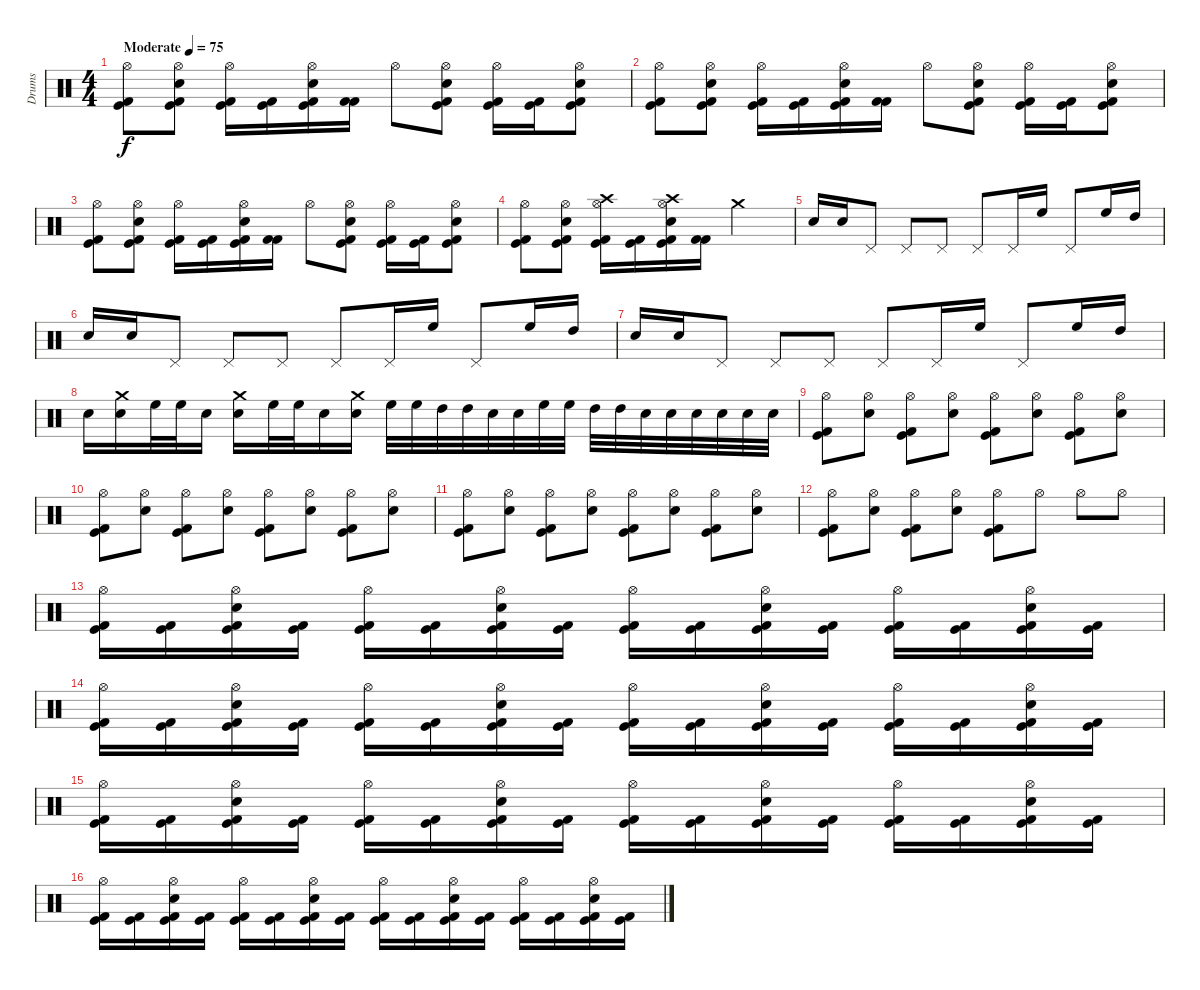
\track ("Drums" "Drums") {instrument percussion}
\staff {score}
\articulation defaults
\ts (4 4)
\tempo (75 "Moderate")
\clef neutral
\ks c
("Kick (hit) 2" "Kick (hit)" "Hi-Hat (open)").8{dy f} ("Kick (hit) 2" "Kick (hit)" "Snare (hit) 2" "Hi-Hat (open)").8 ("Kick (hit) 2" "Kick (hit)" "Hi-Hat (open)").16 ("Kick (hit) 2" "Kick (hit)").16 ("Kick (hit) 2" "Kick (hit)" "Snare (hit) 2" "Hi-Hat (open)").16 ("Kick (hit) 2" "Kick (hit) 2").16 "Hi-Hat (open)".8 ("Kick (hit) 2" "Kick (hit)" "Snare (hit) 2" "Hi-Hat (open)").8 ("Kick (hit) 2" "Kick (hit)" "Hi-Hat (open)").16 ("Kick (hit) 2" "Kick (hit)").16 ("Kick (hit) 2" "Kick (hit)" "Snare (hit) 2" "Hi-Hat (open)").8 |
("Kick (hit) 2" "Kick (hit)" "Hi-Hat (open)").8 ("Kick (hit) 2" "Kick (hit)" "Snare (hit) 2" "Hi-Hat (open)").8 ("Kick (hit) 2" "Kick (hit)" "Hi-Hat (open)").16 ("Kick (hit) 2" "Kick (hit)").16 ("Kick (hit) 2" "Kick (hit)" "Snare (hit) 2" "Hi-Hat (open)").16 ("Kick (hit) 2" "Kick (hit) 2").16 "Hi-Hat (open)".8 ("Kick (hit) 2" "Kick (hit)" "Snare (hit) 2" "Hi-Hat (open)").8 ("Kick (hit) 2" "Kick (hit)" "Hi-Hat (open)").16 ("Kick (hit) 2" "Kick (hit)").16 ("Kick (hit) 2" "Kick (hit)" "Snare (hit) 2" "Hi-Hat (open)").8 |
("Kick (hit) 2" "Kick (hit)" "Hi-Hat (open)").8 ("Kick (hit) 2" "Kick (hit)" "Snare (hit) 2" "Hi-Hat (open)").8 ("Kick (hit) 2" "Kick (hit)" "Hi-Hat (open)").16 ("Kick (hit) 2" "Kick (hit)").16 ("Kick (hit) 2" "Kick (hit)" "Snare (hit) 2" "Hi-Hat (open)").16 ("Kick (hit) 2" "Kick (hit) 2").16 "Hi-Hat (open)".8 ("Kick (hit) 2" "Kick (hit)" "Snare (hit) 2" "Hi-Hat (open)").8 ("Kick (hit) 2" "Kick (hit)" "Hi-Hat (open)").16 ("Kick (hit) 2" "Kick (hit)").16 ("Kick (hit) 2" "Kick (hit)" "Snare (hit) 2" "Hi-Hat (open)").8 |
("Kick (hit) 2" "Kick (hit)" "Hi-Hat (open)").8 ("Kick (hit) 2" "Kick (hit)" "Snare (hit) 2" "Hi-Hat (open)").8 ("Kick (hit) 2" "Kick (hit)" "Hi-Hat (open)" "Crash high (hit)").16 ("Kick (hit) 2" "Kick (hit)").16 ("Kick (hit) 2" "Kick (hit)" "Snare (hit) 2" "Hi-Hat (open)" "Crash high (hit)").16 ("Kick (hit) 2" "Kick (hit) 2").16 "Crash medium (hit)".2 |
"Snare (hit) 2".16 "Snare (hit) 2".16 "Pedal Hi-Hat (hit)".8 "Pedal Hi-Hat (hit)".8 "Pedal Hi-Hat (hit)".8 "Pedal Hi-Hat (hit)".8 "Pedal Hi-Hat (hit)".16 "High Floor Tom (hit)".16 "Pedal Hi-Hat (hit)".8 "High Floor Tom (hit)".16 "High Tom (hit)".16 |
"Snare (hit) 2".16 "Snare (hit) 2".16 "Pedal Hi-Hat (hit)".8 "Pedal Hi-Hat (hit)".8 "Pedal Hi-Hat (hit)".8 "Pedal Hi-Hat (hit)".8 "Pedal Hi-Hat (hit)".16 "High Floor Tom (hit)".16 "Pedal Hi-Hat (hit)".8 "High Floor Tom (hit)".16 "High Tom (hit)".16 |
"Snare (hit) 2".16 "Snare (hit) 2".16 "Pedal Hi-Hat (hit)".8 "Pedal Hi-Hat (hit)".8 "Pedal Hi-Hat (hit)".8 "Pedal Hi-Hat (hit)".8 "Pedal Hi-Hat (hit)".16 "High Floor Tom (hit)".16 "Pedal Hi-Hat (hit)".8 "High Floor Tom (hit)".16 "High Tom (hit)".16 |
"Snare (hit) 2".16 ("Snare (hit) 2" "Crash medium (hit)").16 "High Floor Tom (hit)".32 "High Floor Tom (hit)".32 "Snare (hit) 2".16 ("Snare (hit) 2" "Crash medium (hit)").16 "High Floor Tom (hit)".32 "High Floor Tom (hit)".32 "Snare (hit) 2".16 ("Snare (hit) 2" "Crash medium (hit)").16 "High Floor Tom (hit)".32 "High Floor Tom (hit)".32 "High Tom (hit)".32 "High Tom (hit)".32 "Snare (hit) 2".32 "Snare (hit) 2".32 "High Floor Tom (hit)".32 "High Floor Tom (hit)".32 "High Tom (hit)".32 "High Tom (hit)".32 "Snare (hit) 2".32 "Snare (hit) 2".32 "Snare (hit) 2".32 "Snare (hit) 2".32 "Snare (hit) 2".32 "Snare (hit) 2".32 |
("Kick (hit) 2" "Kick (hit)" "Hi-Hat (open)").8 ("Hi-Hat (open)" "Electric Snare (hit)").8 ("Kick (hit) 2" "Kick (hit)" "Hi-Hat (open)").8 ("Hi-Hat (open)" "Electric Snare (hit)").8 ("Kick (hit) 2" "Kick (hit)" "Hi-Hat (open)").8 ("Hi-Hat (open)" "Electric Snare (hit)").8 ("Kick (hit) 2" "Kick (hit)" "Hi-Hat (open)").8 ("Hi-Hat (open)" "Electric Snare (hit)").8 |
("Kick (hit) 2" "Kick (hit)" "Hi-Hat (open)").8 ("Hi-Hat (open)" "Electric Snare (hit)").8 ("Kick (hit) 2" "Kick (hit)" "Hi-Hat (open)").8 ("Hi-Hat (open)" "Electric Snare (hit)").8 ("Kick (hit) 2" "Kick (hit)" "Hi-Hat (open)").8 ("Hi-Hat (open)" "Electric Snare (hit)").8 ("Kick (hit) 2" "Kick (hit)" "Hi-Hat (open)").8 ("Hi-Hat (open)" "Electric Snare (hit)").8 |
("Kick (hit) 2" "Kick (hit)" "Hi-Hat (open)").8 ("Hi-Hat (open)" "Electric Snare (hit)").8 ("Kick (hit) 2" "Kick (hit)" "Hi-Hat (open)").8 ("Hi-Hat (open)" "Electric Snare (hit)").8 ("Kick (hit) 2" "Kick (hit)" "Hi-Hat (open)").8 ("Hi-Hat (open)" "Electric Snare (hit)").8 ("Kick (hit) 2" "Kick (hit)" "Hi-Hat (open)").8 ("Hi-Hat (open)" "Electric Snare (hit)").8 |
("Kick (hit) 2" "Kick (hit)" "Hi-Hat (open)").8 ("Hi-Hat (open)" "Electric Snare (hit)").8 ("Kick (hit) 2" "Kick (hit)" "Hi-Hat (open)").8 ("Hi-Hat (open)" "Electric Snare (hit)").8 ("Kick (hit) 2" "Kick (hit)" "Hi-Hat (open)").8 "Hi-Hat (open)".8 "Hi-Hat (open)".8 "Hi-Hat (open)".8 |
("Kick (hit) 2" "Kick (hit)" "Hi-Hat (open)").16 ("Kick (hit) 2" "Kick (hit)").16 ("Kick (hit) 2" "Kick (hit)" "Electric Snare (hit)" "Hi-Hat (open)").16 ("Kick (hit) 2" "Kick (hit)").16 ("Kick (hit) 2" "Kick (hit)" "Hi-Hat (open)").16 ("Kick (hit) 2" "Kick (hit)").16 ("Kick (hit) 2" "Kick (hit)" "Electric Snare (hit)" "Hi-Hat (open)").16 ("Kick (hit) 2" "Kick (hit)").16 ("Kick (hit) 2" "Kick (hit)" "Hi-Hat (open)").16 ("Kick (hit) 2" "Kick (hit)").16 ("Kick (hit) 2" "Kick (hit)" "Electric Snare (hit)" "Hi-Hat (open)").16 ("Kick (hit) 2" "Kick (hit)").16 ("Kick (hit) 2" "Kick (hit)" "Hi-Hat (open)").16 ("Kick (hit) 2" "Kick (hit)").16 ("Kick (hit) 2" "Kick (hit)" "Electric Snare (hit)" "Hi-Hat (open)").16 ("Kick (hit) 2" "Kick (hit)").16 |
("Kick (hit) 2" "Kick (hit)" "Hi-Hat (open)").16 ("Kick (hit) 2" "Kick (hit)").16 ("Kick (hit) 2" "Kick (hit)" "Electric Snare (hit)" "Hi-Hat (open)").16 ("Kick (hit) 2" "Kick (hit)").16 ("Kick (hit) 2" "Kick (hit)" "Hi-Hat (open)").16 ("Kick (hit) 2" "Kick (hit)").16 ("Kick (hit) 2" "Kick (hit)" "Electric Snare (hit)" "Hi-Hat (open)").16 ("Kick (hit) 2" "Kick (hit)").16 ("Kick (hit) 2" "Kick (hit)" "Hi-Hat (open)").16 ("Kick (hit) 2" "Kick (hit)").16 ("Kick (hit) 2" "Kick (hit)" "Electric Snare (hit)" "Hi-Hat (open)").16 ("Kick (hit) 2" "Kick (hit)").16 ("Kick (hit) 2" "Kick (hit)" "Hi-Hat (open)").16 ("Kick (hit) 2" "Kick (hit)").16 ("Kick (hit) 2" "Kick (hit)" "Electric Snare (hit)" "Hi-Hat (open)").16 ("Kick (hit) 2" "Kick (hit)").16 |
("Kick (hit) 2" "Kick (hit)" "Hi-Hat (open)").16 ("Kick (hit) 2" "Kick (hit)").16 ("Kick (hit) 2" "Kick (hit)" "Electric Snare (hit)" "Hi-Hat (open)").16 ("Kick (hit) 2" "Kick (hit)").16 ("Kick (hit) 2" "Kick (hit)" "Hi-Hat (open)").16 ("Kick (hit) 2" "Kick (hit)").16 ("Kick (hit) 2" "Kick (hit)" "Electric Snare (hit)" "Hi-Hat (open)").16 ("Kick (hit) 2" "Kick (hit)").16 ("Kick (hit) 2" "Kick (hit)" "Hi-Hat (open)").16 ("Kick (hit) 2" "Kick (hit)").16 ("Kick (hit) 2" "Kick (hit)" "Electric Snare (hit)" "Hi-Hat (open)").16 ("Kick (hit) 2" "Kick (hit)").16 ("Kick (hit) 2" "Kick (hit)" "Hi-Hat (open)").16 ("Kick (hit) 2" "Kick (hit)").16 ("Kick (hit) 2" "Kick (hit)" "Electric Snare (hit)" "Hi-Hat (open)").16 ("Kick (hit) 2" "Kick (hit)").16 |
("Kick (hit) 2" "Kick (hit)" "Hi-Hat (open)").16 ("Kick (hit) 2" "Kick (hit)").16 ("Kick (hit) 2" "Kick (hit)" "Electric Snare (hit)" "Hi-Hat (open)").16 ("Kick (hit) 2" "Kick (hit)").16 ("Kick (hit) 2" "Kick (hit)" "Hi-Hat (open)").16 ("Kick (hit) 2" "Kick (hit)").16 ("Kick (hit) 2" "Kick (hit)" "Electric Snare (hit)" "Hi-Hat (open)").16 ("Kick (hit) 2" "Kick (hit)").16 ("Kick (hit) 2" "Kick (hit)" "Hi-Hat (open)").16 ("Kick (hit) 2" "Kick (hit)").16 ("Kick (hit) 2" "Kick (hit)" "Electric Snare (hit)" "Hi-Hat (open)").16 ("Kick (hit) 2" "Kick (hit)").16 ("Kick (hit) 2" "Kick (hit)" "Hi-Hat (open)").16 ("Kick (hit) 2" "Kick (hit)").16 ("Kick (hit) 2" "Kick (hit)" "Electric Snare (hit)" "Hi-Hat (open)").16 ("Kick (hit) 2" "Kick (hit)").16
